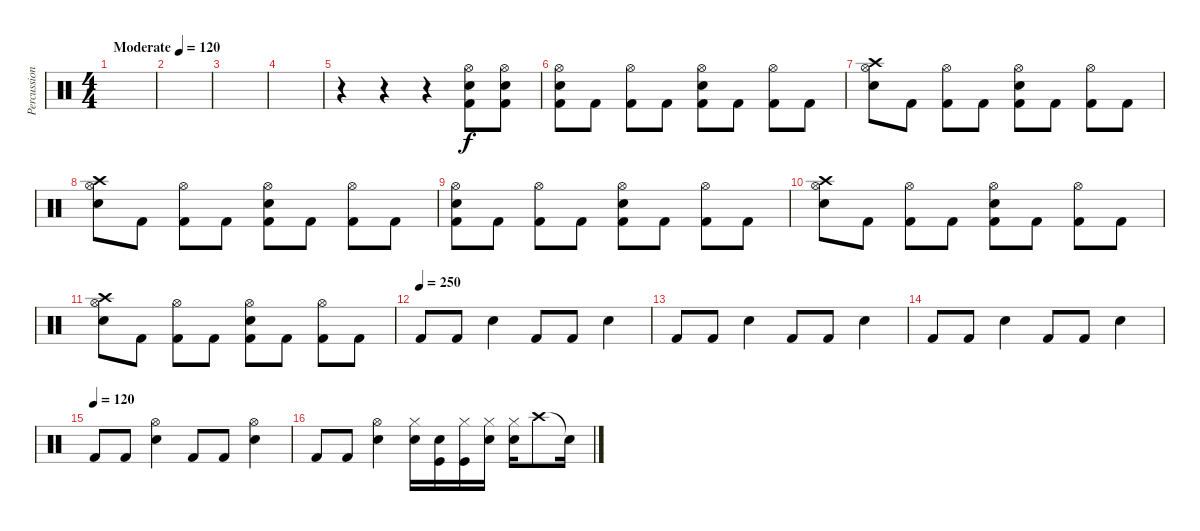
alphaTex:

\track ("Percussion" "Percussion") {instrument percussion}
\staff {score}
\articulation defaults
\ts (4 4)
\tempo (120 "Moderate")
\clef neutral
\ks c
|
|
|
|
r.4 r.4 r.4 ("Electric Snare (hit)" "Kick (hit) 2" "Hi-Hat (open)").8 ("Electric Snare (hit)" "Kick (hit) 2" "Hi-Hat (open)").8 |
("Hi-Hat (open)" "Electric Snare (hit)" "Kick (hit) 2").8 "Kick (hit) 2".8 ("Hi-Hat (open)" "Kick (hit) 2").8 "Kick (hit) 2".8 ("Hi-Hat (open)" "Electric Snare (hit)" "Kick (hit) 2").8 "Kick (hit) 2".8 ("Hi-Hat (open)" "Kick (hit) 2").8 "Kick (hit) 2".8 |
("Hi-Hat (open)" "Electric Snare (hit)" "Crash high (hit)").8 "Kick (hit) 2".8 ("Hi-Hat (open)" "Kick (hit) 2").8 "Kick (hit) 2".8 ("Hi-Hat (open)" "Electric Snare (hit)" "Kick (hit) 2").8 "Kick (hit) 2".8 ("Hi-Hat (open)" "Kick (hit) 2").8 "Kick (hit) 2".8 |
("Hi-Hat (open)" "Electric Snare (hit)" "Crash high (hit)").8 "Kick (hit) 2".8 ("Hi-Hat (open)" "Kick (hit) 2").8 "Kick (hit) 2".8 ("Hi-Hat (open)" "Electric Snare (hit)" "Kick (hit) 2").8 "Kick (hit) 2".8 ("Hi-Hat (open)" "Kick (hit) 2").8 "Kick (hit) 2".8 |
("Hi-Hat (open)" "Electric Snare (hit)" "Kick (hit) 2").8 "Kick (hit) 2".8 ("Hi-Hat (open)" "Kick (hit) 2").8 "Kick (hit) 2".8 ("Hi-Hat (open)" "Electric Snare (hit)" "Kick (hit) 2").8 "Kick (hit) 2".8 ("Hi-Hat (open)" "Kick (hit) 2").8 "Kick (hit) 2".8 |
("Hi-Hat (open)" "Electric Snare (hit)" "Crash high (hit)").8 "Kick (hit) 2".8 ("Hi-Hat (open)" "Kick (hit) 2").8 "Kick (hit) 2".8 ("Hi-Hat (open)" "Electric Snare (hit)" "Kick (hit) 2").8 "Kick (hit) 2".8 ("Hi-Hat (open)" "Kick (hit) 2").8 "Kick (hit) 2".8 |
("Hi-Hat (open)" "Electric Snare (hit)" "Crash high (hit)").8 "Kick (hit) 2".8 ("Hi-Hat (open)" "Kick (hit) 2").8 "Kick (hit) 2".8 ("Hi-Hat (open)" "Electric Snare (hit)" "Kick (hit) 2").8 "Kick (hit) 2".8 ("Hi-Hat (open)" "Kick (hit) 2").8 "Kick (hit) 2".8 |
\tempo (250)
"Kick (hit) 2".8 "Kick (hit) 2".8 "Electric Snare (hit)".4 "Kick (hit) 2".8 "Kick (hit) 2".8 "Electric Snare (hit)".4 |
"Kick (hit) 2".8 "Kick (hit) 2".8 "Electric Snare (hit)".4 "Kick (hit) 2".8 "Kick (hit) 2".8 "Electric Snare (hit)".4 |
"Kick (hit) 2".8 "Kick (hit) 2".8 "Electric Snare (hit)".4 "Kick (hit) 2".8 "Kick (hit) 2".8 "Electric Snare (hit)".4 |
\tempo 110
\tempo (120)
"Kick (hit) 2".8 "Kick (hit) 2".8 ("Hi-Hat (open)" "Electric Snare (hit)").4 "Kick (hit) 2".8 "Kick (hit) 2".8 ("Hi-Hat (open)" "Electric Snare (hit)").4 |
"Kick (hit) 2".8 "Kick (hit) 2".8 ("Hi-Hat (open)" "Electric Snare (hit)").4 ("Electric Snare (hit)" "Hi-Hat (closed)").16 ("Electric Snare (hit)" "Kick (hit)").16 ("Hi-Hat (closed)" "Kick (hit)").16 ("Electric Snare (hit)" "Hi-Hat (closed)").16 ("Hi-Hat (closed)" "Electric Snare (hit)").16 "Crash high (hit)".8 "Snare (hit)"{t}.16
